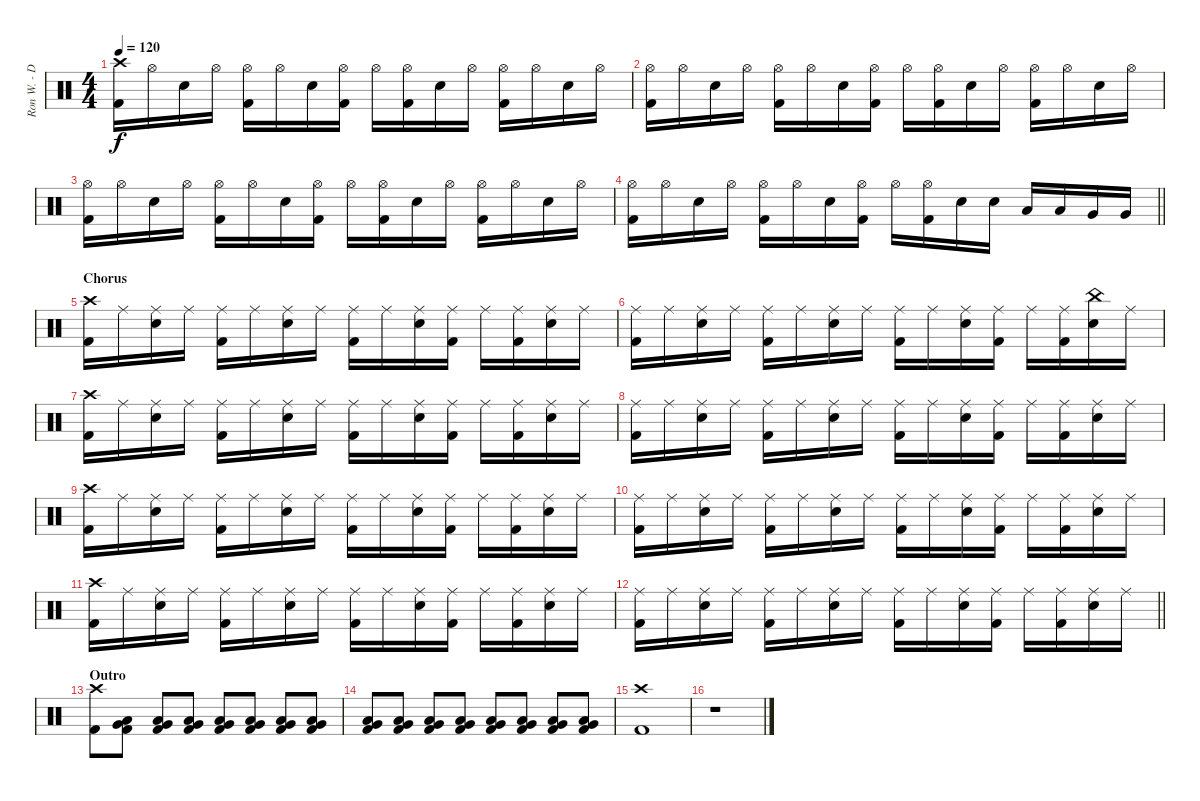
\track ("Ron W. - Drums" "Ron W. - D") {instrument percussion}
\staff {score}
\articulation defaults
\ts (4 4)
\tempo 120
\clef neutral
\ks c
("Crash high (hit)" "Kick (hit) 2").16{dy f} "Hi-Hat (open)".16 "Snare (hit) 2".16 "Hi-Hat (open)".16 ("Hi-Hat (open)" "Kick (hit) 2").16 "Hi-Hat (open)".16 "Snare (hit) 2".16 ("Hi-Hat (open)" "Kick (hit) 2").16 "Hi-Hat (open)".16 ("Hi-Hat (open)" "Kick (hit) 2").16 "Snare (hit) 2".16 "Hi-Hat (open)".16 ("Hi-Hat (open)" "Kick (hit) 2").16 "Hi-Hat (open)".16 "Snare (hit) 2".16 "Hi-Hat (open)".16 |
("Hi-Hat (open)" "Kick (hit) 2").16 "Hi-Hat (open)".16 "Snare (hit) 2".16 "Hi-Hat (open)".16 ("Hi-Hat (open)" "Kick (hit) 2").16 "Hi-Hat (open)".16 "Snare (hit) 2".16 ("Hi-Hat (open)" "Kick (hit) 2").16 "Hi-Hat (open)".16 ("Hi-Hat (open)" "Kick (hit) 2").16 "Snare (hit) 2".16 "Hi-Hat (open)".16 ("Hi-Hat (open)" "Kick (hit) 2").16 "Hi-Hat (open)".16 "Snare (hit) 2".16 "Hi-Hat (open)".16 |
("Hi-Hat (open)" "Kick (hit) 2").16 "Hi-Hat (open)".16 "Snare (hit) 2".16 "Hi-Hat (open)".16 ("Hi-Hat (open)" "Kick (hit) 2").16 "Hi-Hat (open)".16 "Snare (hit) 2".16 ("Hi-Hat (open)" "Kick (hit) 2").16 "Hi-Hat (open)".16 ("Hi-Hat (open)" "Kick (hit) 2").16 "Snare (hit) 2".16 "Hi-Hat (open)".16 ("Hi-Hat (open)" "Kick (hit) 2").16 "Hi-Hat (open)".16 "Snare (hit) 2".16 "Hi-Hat (open)".16 |
\barLineRight lightlight
("Hi-Hat (open)" "Kick (hit) 2").16 "Hi-Hat (open)".16 "Snare (hit) 2".16 "Hi-Hat (open)".16 ("Hi-Hat (open)" "Kick (hit) 2").16 "Hi-Hat (open)".16 "Snare (hit) 2".16 ("Hi-Hat (open)" "Kick (hit) 2").16 "Hi-Hat (open)".16 ("Hi-Hat (open)" "Kick (hit) 2").16 "Snare (hit) 2".16 "Snare (hit) 2".16 "Low Tom (hit)".16 "Low Tom (hit)".16 "Very Low Tom (hit)".16 "Very Low Tom (hit)".16 |
\section ("" "Chorus")
("Crash high (hit)" "Kick (hit) 2").16 "Ride (middle)".16 ("Ride (middle)" "Snare (hit) 2").16 "Ride (middle)".16 ("Ride (middle)" "Kick (hit) 2").16 "Ride (middle)".16 ("Ride (middle)" "Snare (hit) 2").16 "Ride (middle)".16 ("Ride (middle)" "Kick (hit) 2").16 "Ride (middle)".16 ("Ride (middle)" "Snare (hit) 2").16 ("Ride (middle)" "Kick (hit) 2").16 "Ride (middle)".16 ("Ride (middle)" "Kick (hit) 2").16 ("Ride (middle)" "Snare (hit) 2").16 "Ride (middle)".16 |
("Ride (middle)" "Kick (hit) 2").16 "Ride (middle)".16 ("Ride (middle)" "Snare (hit) 2").16 "Ride (middle)".16 ("Ride (middle)" "Kick (hit) 2").16 "Ride (middle)".16 ("Ride (middle)" "Snare (hit) 2").16 "Ride (middle)".16 ("Ride (middle)" "Kick (hit) 2").16 "Ride (middle)".16 ("Ride (middle)" "Snare (hit) 2").16 ("Ride (middle)" "Kick (hit) 2").16 "Ride (middle)".16 ("Ride (middle)" "Kick (hit) 2").16 ("China (hit)" "Snare (hit) 2").16 "Ride (middle)".16 |
("Crash high (hit)" "Kick (hit) 2").16 "Ride (middle)".16 ("Ride (middle)" "Snare (hit) 2").16 "Ride (middle)".16 ("Ride (middle)" "Kick (hit) 2").16 "Ride (middle)".16 ("Ride (middle)" "Snare (hit) 2").16 "Ride (middle)".16 ("Ride (middle)" "Kick (hit) 2").16 "Ride (middle)".16 ("Ride (middle)" "Snare (hit) 2").16 ("Ride (middle)" "Kick (hit) 2").16 "Ride (middle)".16 ("Ride (middle)" "Kick (hit) 2").16 ("Ride (middle)" "Snare (hit) 2").16 "Ride (middle)".16 |
("Ride (middle)" "Kick (hit) 2").16 "Ride (middle)".16 ("Ride (middle)" "Snare (hit) 2").16 "Ride (middle)".16 ("Ride (middle)" "Kick (hit) 2").16 "Ride (middle)".16 ("Ride (middle)" "Snare (hit) 2").16 "Ride (middle)".16 ("Ride (middle)" "Kick (hit) 2").16 "Ride (middle)".16 ("Ride (middle)" "Snare (hit) 2").16 ("Ride (middle)" "Kick (hit) 2").16 "Ride (middle)".16 ("Ride (middle)" "Kick (hit) 2").16 ("Ride (middle)" "Snare (hit) 2").16 "Ride (middle)".16 |
("Crash high (hit)" "Kick (hit) 2").16 "Ride (middle)".16 ("Ride (middle)" "Snare (hit) 2").16 "Ride (middle)".16 ("Ride (middle)" "Kick (hit) 2").16 "Ride (middle)".16 ("Ride (middle)" "Snare (hit) 2").16 "Ride (middle)".16 ("Ride (middle)" "Kick (hit) 2").16 "Ride (middle)".16 ("Ride (middle)" "Snare (hit) 2").16 ("Ride (middle)" "Kick (hit) 2").16 "Ride (middle)".16 ("Ride (middle)" "Kick (hit) 2").16 ("Ride (middle)" "Snare (hit) 2").16 "Ride (middle)".16 |
("Ride (middle)" "Kick (hit) 2").16 "Ride (middle)".16 ("Ride (middle)" "Snare (hit) 2").16 "Ride (middle)".16 ("Ride (middle)" "Kick (hit) 2").16 "Ride (middle)".16 ("Ride (middle)" "Snare (hit) 2").16 "Ride (middle)".16 ("Ride (middle)" "Kick (hit) 2").16 "Ride (middle)".16 ("Ride (middle)" "Snare (hit) 2").16 ("Ride (middle)" "Kick (hit) 2").16 "Ride (middle)".16 ("Ride (middle)" "Kick (hit) 2").16 ("Ride (middle)" "Snare (hit) 2").16 "Ride (middle)".16 |
("Crash high (hit)" "Kick (hit) 2").16 "Ride (middle)".16 ("Ride (middle)" "Snare (hit) 2").16 "Ride (middle)".16 ("Ride (middle)" "Kick (hit) 2").16 "Ride (middle)".16 ("Ride (middle)" "Snare (hit) 2").16 "Ride (middle)".16 ("Ride (middle)" "Kick (hit) 2").16 "Ride (middle)".16 ("Ride (middle)" "Snare (hit) 2").16 ("Ride (middle)" "Kick (hit) 2").16 "Ride (middle)".16 ("Ride (middle)" "Kick (hit) 2").16 ("Ride (middle)" "Snare (hit) 2").16 "Ride (middle)".16 |
\barLineRight lightlight
("Ride (middle)" "Kick (hit) 2").16 "Ride (middle)".16 ("Ride (middle)" "Snare (hit) 2").16 "Ride (middle)".16 ("Ride (middle)" "Kick (hit) 2").16 "Ride (middle)".16 ("Ride (middle)" "Snare (hit) 2").16 "Ride (middle)".16 ("Ride (middle)" "Kick (hit) 2").16 "Ride (middle)".16 ("Ride (middle)" "Snare (hit) 2").16 ("Ride (middle)" "Kick (hit) 2").16 "Ride (middle)".16 ("Ride (middle)" "Kick (hit) 2").16 ("Ride (middle)" "Snare (hit) 2").16 "Ride (middle)".16 |
\section ("" "Outro")
("Crash high (hit)" "Kick (hit) 2").8 ("Low Tom (hit)" "Very Low Tom (hit)" "Kick (hit) 2").8 ("Low Tom (hit)" "Very Low Tom (hit)" "Kick (hit) 2").8 ("Low Tom (hit)" "Very Low Tom (hit)" "Kick (hit) 2").8 ("Low Tom (hit)" "Very Low Tom (hit)" "Kick (hit) 2").8 ("Low Tom (hit)" "Very Low Tom (hit)" "Kick (hit) 2").8 ("Low Tom (hit)" "Very Low Tom (hit)" "Kick (hit) 2").8 ("Low Tom (hit)" "Very Low Tom (hit)" "Kick (hit) 2").8 |
("Low Tom (hit)" "Very Low Tom (hit)" "Kick (hit) 2").8 ("Low Tom (hit)" "Very Low Tom (hit)" "Kick (hit) 2").8 ("Low Tom (hit)" "Very Low Tom (hit)" "Kick (hit) 2").8 ("Low Tom (hit)" "Very Low Tom (hit)" "Kick (hit) 2").8 ("Low Tom (hit)" "Very Low Tom (hit)" "Kick (hit) 2").8 ("Low Tom (hit)" "Very Low Tom (hit)" "Kick (hit) 2").8 ("Low Tom (hit)" "Very Low Tom (hit)" "Kick (hit) 2").8 ("Low Tom (hit)" "Very Low Tom (hit)" "Kick (hit) 2").8 |
("Crash high (hit)" "Kick (hit) 2").1 |
r.1
